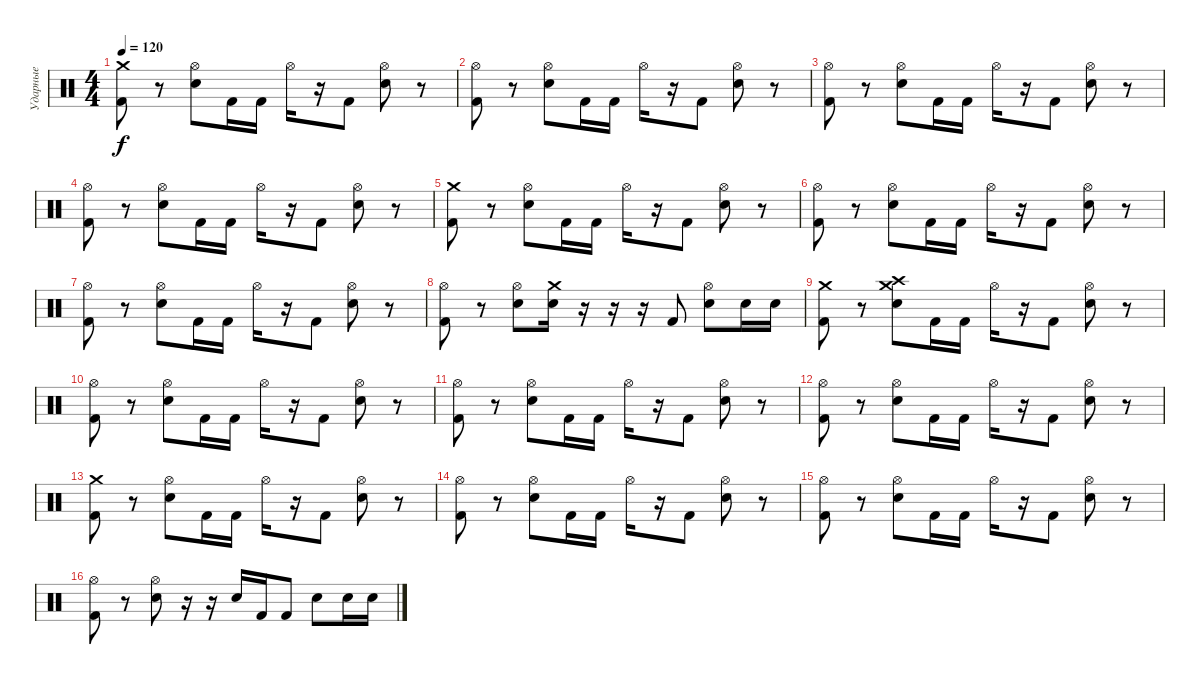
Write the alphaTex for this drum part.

\track ("Ударные" "Ударные") {instrument percussion}
\staff {score}
\articulation defaults
\ts (4 4)
\tempo 120
\clef neutral
\ks c
("Crash medium (hit)" "Kick (hit) 2").8{dy f} r.8 ("Hi-Hat (open)" "Snare (hit) 2").8 "Kick (hit) 2".16 "Kick (hit) 2".16 "Hi-Hat (open)".16 r.16 "Kick (hit) 2".8 ("Hi-Hat (open)" "Snare (hit) 2").8 r.8 |
("Hi-Hat (open)" "Kick (hit) 2").8 r.8 ("Hi-Hat (open)" "Snare (hit) 2").8 "Kick (hit) 2".16 "Kick (hit) 2".16 "Hi-Hat (open)".16 r.16 "Kick (hit) 2".8 ("Hi-Hat (open)" "Snare (hit) 2").8 r.8 |
("Hi-Hat (open)" "Kick (hit) 2").8 r.8 ("Hi-Hat (open)" "Snare (hit) 2").8 "Kick (hit) 2".16 "Kick (hit) 2".16 "Hi-Hat (open)".16 r.16 "Kick (hit) 2".8 ("Hi-Hat (open)" "Snare (hit) 2").8 r.8 |
("Hi-Hat (open)" "Kick (hit) 2").8 r.8 ("Hi-Hat (open)" "Snare (hit) 2").8 "Kick (hit) 2".16 "Kick (hit) 2".16 "Hi-Hat (open)".16 r.16 "Kick (hit) 2".8 ("Hi-Hat (open)" "Snare (hit) 2").8 r.8 |
("Crash medium (hit)" "Kick (hit) 2").8 r.8 ("Hi-Hat (open)" "Snare (hit) 2").8 "Kick (hit) 2".16 "Kick (hit) 2".16 "Hi-Hat (open)".16 r.16 "Kick (hit) 2".8 ("Hi-Hat (open)" "Snare (hit) 2").8 r.8 |
("Hi-Hat (open)" "Kick (hit) 2").8 r.8 ("Hi-Hat (open)" "Snare (hit) 2").8 "Kick (hit) 2".16 "Kick (hit) 2".16 "Hi-Hat (open)".16 r.16 "Kick (hit) 2".8 ("Hi-Hat (open)" "Snare (hit) 2").8 r.8 |
("Hi-Hat (open)" "Kick (hit) 2").8 r.8 ("Hi-Hat (open)" "Snare (hit) 2").8 "Kick (hit) 2".16 "Kick (hit) 2".16 "Hi-Hat (open)".16 r.16 "Kick (hit) 2".8 ("Hi-Hat (open)" "Snare (hit) 2").8 r.8 |
("Hi-Hat (open)" "Kick (hit) 2").8 r.8 ("Hi-Hat (open)" "Snare (hit) 2").8 ("Crash medium (hit)" "Snare (hit) 2").16 r.16 r.16 r.16 "Kick (hit) 2".8 ("Hi-Hat (open)" "Snare (hit) 2").8 "Snare (hit) 2".16 "Snare (hit) 2".16 |
("Crash medium (hit)" "Kick (hit) 2").8 r.8 ("Crash high (hit)" "Snare (hit) 2" "Crash medium (hit)").8 "Kick (hit) 2".16 "Kick (hit) 2".16 "Hi-Hat (open)".16 r.16 "Kick (hit) 2".8 ("Hi-Hat (open)" "Snare (hit) 2").8 r.8 |
("Hi-Hat (open)" "Kick (hit) 2").8 r.8 ("Hi-Hat (open)" "Snare (hit) 2").8 "Kick (hit) 2".16 "Kick (hit) 2".16 "Hi-Hat (open)".16 r.16 "Kick (hit) 2".8 ("Hi-Hat (open)" "Snare (hit) 2").8 r.8 |
("Hi-Hat (open)" "Kick (hit) 2").8 r.8 ("Hi-Hat (open)" "Snare (hit) 2").8 "Kick (hit) 2".16 "Kick (hit) 2".16 "Hi-Hat (open)".16 r.16 "Kick (hit) 2".8 ("Hi-Hat (open)" "Snare (hit) 2").8 r.8 |
("Hi-Hat (open)" "Kick (hit) 2").8 r.8 ("Hi-Hat (open)" "Snare (hit) 2").8 "Kick (hit) 2".16 "Kick (hit) 2".16 "Hi-Hat (open)".16 r.16 "Kick (hit) 2".8 ("Hi-Hat (open)" "Snare (hit) 2").8 r.8 |
("Crash medium (hit)" "Kick (hit) 2").8 r.8 ("Hi-Hat (open)" "Snare (hit) 2").8 "Kick (hit) 2".16 "Kick (hit) 2".16 "Hi-Hat (open)".16 r.16 "Kick (hit) 2".8 ("Hi-Hat (open)" "Snare (hit) 2").8 r.8 |
("Hi-Hat (open)" "Kick (hit) 2").8 r.8 ("Hi-Hat (open)" "Snare (hit) 2").8 "Kick (hit) 2".16 "Kick (hit) 2".16 "Hi-Hat (open)".16 r.16 "Kick (hit) 2".8 ("Hi-Hat (open)" "Snare (hit) 2").8 r.8 |
("Hi-Hat (open)" "Kick (hit) 2").8 r.8 ("Hi-Hat (open)" "Snare (hit) 2").8 "Kick (hit) 2".16 "Kick (hit) 2".16 "Hi-Hat (open)".16 r.16 "Kick (hit) 2".8 ("Hi-Hat (open)" "Snare (hit) 2").8 r.8 |
("Hi-Hat (open)" "Kick (hit) 2").8 r.8 ("Hi-Hat (open)" "Snare (hit) 2").8 r.16 r.16 "Snare (hit) 2".16 "Kick (hit) 2".16 "Kick (hit) 2".8 "Snare (hit) 2".8 "Snare (hit) 2".16 "Snare (hit) 2".16
